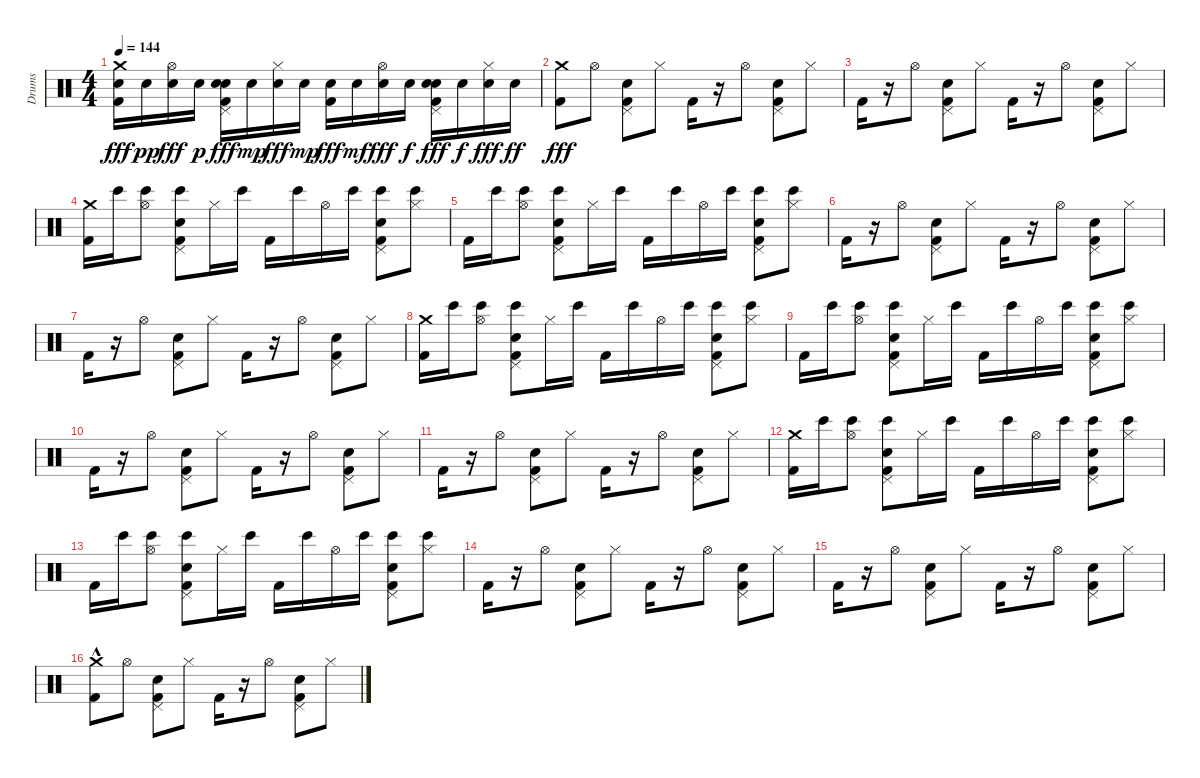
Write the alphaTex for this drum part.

\track ("Drums" "Drums") {instrument percussion}
\staff {score}
\articulation defaults
\ts (4 4)
\tempo 144
\clef neutral
\ks c
("Crash medium (hit)" "Electric Snare (hit)" "Kick (hit) 2").16{dy fff} "Electric Snare (hit)".16{dy pp} ("Electric Snare (hit)" "Hi-Hat (open)").16{dy fff} "Electric Snare (hit)".16{dy p} ("Electric Snare (hit)" "Pedal Hi-Hat (hit)" "Kick (hit) 2" "Hand Clap (hit)").16{dy fff} "Electric Snare (hit)".16{dy mp} ("Electric Snare (hit)" "Hi-Hat (closed)").16{dy fff} "Electric Snare (hit)".16{dy mp} ("Electric Snare (hit)" "Kick (hit) 2").16{dy fff} "Electric Snare (hit)".16{dy mf} ("Electric Snare (hit)" "Hi-Hat (open)").16{dy fff} "Electric Snare (hit)".16{dy f} ("Electric Snare (hit)" "Pedal Hi-Hat (hit)" "Kick (hit) 2" "Hand Clap (hit)").16{dy fff} "Electric Snare (hit)".16{dy f} ("Electric Snare (hit)" "Hi-Hat (closed)").16{dy fff} "Electric Snare (hit)".16{dy ff} |
("Crash medium (hit)" "Kick (hit) 2").8{dy fff} "Hi-Hat (open)".8 ("Pedal Hi-Hat (hit)" "Kick (hit) 2" "Hand Clap (hit)").8 "Hi-Hat (closed)".8 "Kick (hit) 2".16 r.16 "Hi-Hat (open)".8 ("Pedal Hi-Hat (hit)" "Kick (hit) 2" "Hand Clap (hit)").8 "Hi-Hat (closed)".8 |
"Kick (hit) 2".16 r.16 "Hi-Hat (open)".8 ("Pedal Hi-Hat (hit)" "Kick (hit) 2" "Hand Clap (hit)").8 "Hi-Hat (closed)".8 "Kick (hit) 2".16 r.16 "Hi-Hat (open)".8 ("Pedal Hi-Hat (hit)" "Kick (hit) 2" "Hand Clap (hit)").8 "Hi-Hat (closed)".8 |
("Crash medium (hit)" "Kick (hit) 2").16 "Bongo High (hit)".16 ("Bongo High (hit)" "Hi-Hat (open)").8 ("Bongo High (hit)" "Pedal Hi-Hat (hit)" "Kick (hit) 2" "Hand Clap (hit)").8 "Hi-Hat (closed)".16 "Bongo High (hit)".16 "Kick (hit) 2".16 "Bongo High (hit)".16 "Hi-Hat (open)".16 "Bongo High (hit)".16 ("Bongo High (hit)" "Pedal Hi-Hat (hit)" "Kick (hit) 2" "Hand Clap (hit)").8 ("Bongo High (hit)" "Hi-Hat (closed)").8 |
"Kick (hit) 2".16 "Bongo High (hit)".16 ("Bongo High (hit)" "Hi-Hat (open)").8 ("Bongo High (hit)" "Pedal Hi-Hat (hit)" "Kick (hit) 2" "Hand Clap (hit)").8 "Hi-Hat (closed)".16 "Bongo High (hit)".16 "Kick (hit) 2".16 "Bongo High (hit)".16 "Hi-Hat (open)".16 "Bongo High (hit)".16 ("Bongo High (hit)" "Pedal Hi-Hat (hit)" "Kick (hit) 2" "Hand Clap (hit)").8 ("Bongo High (hit)" "Hi-Hat (closed)").8 |
"Kick (hit) 2".16 r.16 "Hi-Hat (open)".8 ("Pedal Hi-Hat (hit)" "Kick (hit) 2" "Hand Clap (hit)").8 "Hi-Hat (closed)".8 "Kick (hit) 2".16 r.16 "Hi-Hat (open)".8 ("Pedal Hi-Hat (hit)" "Kick (hit) 2" "Hand Clap (hit)").8 "Hi-Hat (closed)".8 |
"Kick (hit) 2".16 r.16 "Hi-Hat (open)".8 ("Pedal Hi-Hat (hit)" "Kick (hit) 2" "Hand Clap (hit)").8 "Hi-Hat (closed)".8 "Kick (hit) 2".16 r.16 "Hi-Hat (open)".8 ("Pedal Hi-Hat (hit)" "Kick (hit) 2" "Hand Clap (hit)").8 "Hi-Hat (closed)".8 |
("Crash medium (hit)" "Kick (hit) 2").16 "Bongo High (hit)".16 ("Bongo High (hit)" "Hi-Hat (open)").8 ("Bongo High (hit)" "Pedal Hi-Hat (hit)" "Kick (hit) 2" "Hand Clap (hit)").8 "Hi-Hat (closed)".16 "Bongo High (hit)".16 "Kick (hit) 2".16 "Bongo High (hit)".16 "Hi-Hat (open)".16 "Bongo High (hit)".16 ("Bongo High (hit)" "Pedal Hi-Hat (hit)" "Kick (hit) 2" "Hand Clap (hit)").8 ("Bongo High (hit)" "Hi-Hat (closed)").8 |
"Kick (hit) 2".16 "Bongo High (hit)".16 ("Bongo High (hit)" "Hi-Hat (open)").8 ("Bongo High (hit)" "Pedal Hi-Hat (hit)" "Kick (hit) 2" "Hand Clap (hit)").8 "Hi-Hat (closed)".16 "Bongo High (hit)".16 "Kick (hit) 2".16 "Bongo High (hit)".16 "Hi-Hat (open)".16 "Bongo High (hit)".16 ("Bongo High (hit)" "Pedal Hi-Hat (hit)" "Kick (hit) 2" "Hand Clap (hit)").8 ("Bongo High (hit)" "Hi-Hat (closed)").8 |
"Kick (hit) 2".16 r.16 "Hi-Hat (open)".8 ("Pedal Hi-Hat (hit)" "Kick (hit) 2" "Hand Clap (hit)").8 "Hi-Hat (closed)".8 "Kick (hit) 2".16 r.16 "Hi-Hat (open)".8 ("Pedal Hi-Hat (hit)" "Kick (hit) 2" "Hand Clap (hit)").8 "Hi-Hat (closed)".8 |
"Kick (hit) 2".16 r.16 "Hi-Hat (open)".8 ("Pedal Hi-Hat (hit)" "Kick (hit) 2" "Hand Clap (hit)").8 "Hi-Hat (closed)".8 "Kick (hit) 2".16 r.16 "Hi-Hat (open)".8 ("Pedal Hi-Hat (hit)" "Kick (hit) 2" "Hand Clap (hit)").8 "Hi-Hat (closed)".8 |
("Crash medium (hit)" "Kick (hit) 2").16 "Bongo High (hit)".16 ("Bongo High (hit)" "Hi-Hat (open)").8 ("Bongo High (hit)" "Pedal Hi-Hat (hit)" "Kick (hit) 2" "Hand Clap (hit)").8 "Hi-Hat (closed)".16 "Bongo High (hit)".16 "Kick (hit) 2".16 "Bongo High (hit)".16 "Hi-Hat (open)".16 "Bongo High (hit)".16 ("Bongo High (hit)" "Pedal Hi-Hat (hit)" "Kick (hit) 2" "Hand Clap (hit)").8 ("Bongo High (hit)" "Hi-Hat (closed)").8 |
"Kick (hit) 2".16 "Bongo High (hit)".16 ("Bongo High (hit)" "Hi-Hat (open)").8 ("Bongo High (hit)" "Pedal Hi-Hat (hit)" "Kick (hit) 2" "Hand Clap (hit)").8 "Hi-Hat (closed)".16 "Bongo High (hit)".16 "Kick (hit) 2".16 "Bongo High (hit)".16 "Hi-Hat (open)".16 "Bongo High (hit)".16 ("Bongo High (hit)" "Pedal Hi-Hat (hit)" "Kick (hit) 2" "Hand Clap (hit)").8 ("Bongo High (hit)" "Hi-Hat (closed)").8 |
"Kick (hit) 2".16 r.16 "Hi-Hat (open)".8 ("Pedal Hi-Hat (hit)" "Kick (hit) 2" "Hand Clap (hit)").8 "Hi-Hat (closed)".8 "Kick (hit) 2".16 r.16 "Hi-Hat (open)".8 ("Pedal Hi-Hat (hit)" "Kick (hit) 2" "Hand Clap (hit)").8 "Hi-Hat (closed)".8 |
"Kick (hit) 2".16 r.16 "Hi-Hat (open)".8 ("Pedal Hi-Hat (hit)" "Kick (hit) 2" "Hand Clap (hit)").8 "Hi-Hat (closed)".8 "Kick (hit) 2".16 r.16 "Hi-Hat (open)".8 ("Pedal Hi-Hat (hit)" "Kick (hit) 2" "Hand Clap (hit)").8 "Hi-Hat (closed)".8 |
("Crash medium (hit)"{hac} "Kick (hit) 2").8 "Hi-Hat (open)".8 ("Pedal Hi-Hat (hit)" "Kick (hit) 2" "Hand Clap (hit)").8 "Hi-Hat (closed)".8 "Kick (hit) 2".16 r.16 "Hi-Hat (open)".8 ("Pedal Hi-Hat (hit)" "Kick (hit) 2" "Hand Clap (hit)").8 "Hi-Hat (closed)".8
